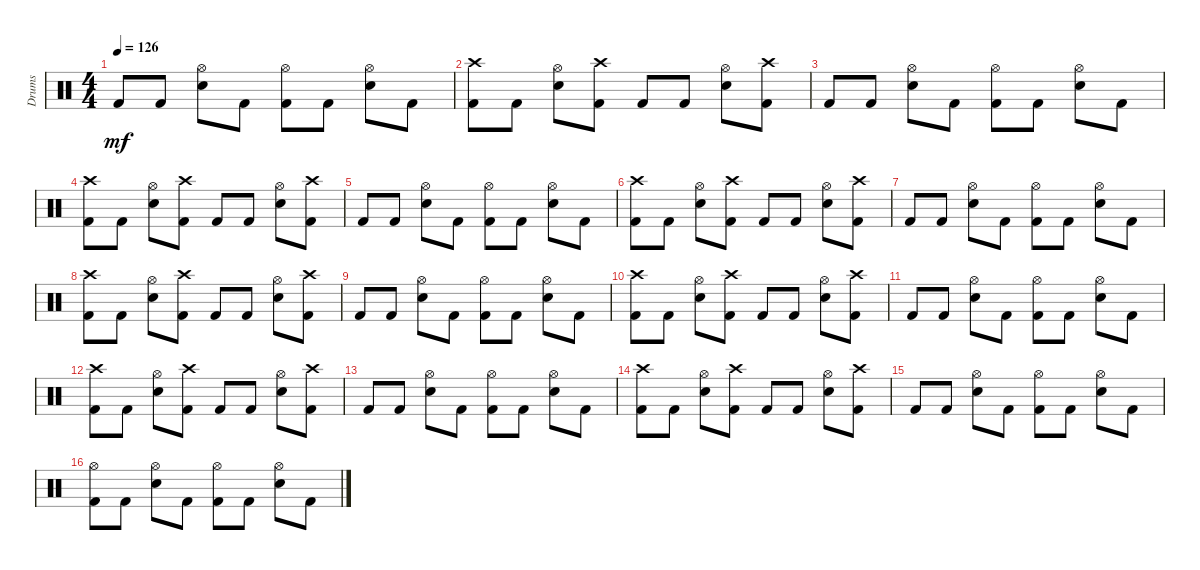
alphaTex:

\track ("Drums" "Drums") {instrument percussion}
\staff {score}
\articulation defaults
\ts (4 4)
\tempo 126
\clef neutral
\ks c "Kick (hit) 2".8{dy mf} "Kick (hit) 2".8
("Hi-Hat (open)" "Electric Snare (hit)").8 "Kick (hit) 2".8 ("Hi-Hat (open)" "Kick (hit) 2").8 "Kick (hit) 2".8 ("Hi-Hat (open)" "Electric Snare (hit)").8 "Kick (hit) 2".8 |
("Crash high (hit)" "Kick (hit) 2").8 "Kick (hit) 2".8 ("Hi-Hat (open)" "Electric Snare (hit)").8 ("Crash high (hit)" "Kick (hit) 2").8 "Kick (hit) 2".8 "Kick (hit) 2".8 ("Hi-Hat (open)" "Electric Snare (hit)").8 ("Crash high (hit)" "Kick (hit) 2").8 |
"Kick (hit) 2".8 "Kick (hit) 2".8 ("Hi-Hat (open)" "Electric Snare (hit)").8 "Kick (hit) 2".8 ("Hi-Hat (open)" "Kick (hit) 2").8 "Kick (hit) 2".8 ("Hi-Hat (open)" "Electric Snare (hit)").8 "Kick (hit) 2".8 |
("Crash high (hit)" "Kick (hit) 2").8 "Kick (hit) 2".8 ("Hi-Hat (open)" "Electric Snare (hit)").8 ("Crash high (hit)" "Kick (hit) 2").8 "Kick (hit) 2".8 "Kick (hit) 2".8 ("Hi-Hat (open)" "Electric Snare (hit)").8 ("Crash high (hit)" "Kick (hit) 2").8 |
"Kick (hit) 2".8 "Kick (hit) 2".8 ("Hi-Hat (open)" "Electric Snare (hit)").8 "Kick (hit) 2".8 ("Hi-Hat (open)" "Kick (hit) 2").8 "Kick (hit) 2".8 ("Hi-Hat (open)" "Electric Snare (hit)").8 "Kick (hit) 2".8 |
("Crash high (hit)" "Kick (hit) 2").8 "Kick (hit) 2".8 ("Hi-Hat (open)" "Electric Snare (hit)").8 ("Crash high (hit)" "Kick (hit) 2").8 "Kick (hit) 2".8 "Kick (hit) 2".8 ("Hi-Hat (open)" "Electric Snare (hit)").8 ("Crash high (hit)" "Kick (hit) 2").8 |
"Kick (hit) 2".8 "Kick (hit) 2".8 ("Hi-Hat (open)" "Electric Snare (hit)").8 "Kick (hit) 2".8 ("Hi-Hat (open)" "Kick (hit) 2").8 "Kick (hit) 2".8 ("Hi-Hat (open)" "Electric Snare (hit)").8 "Kick (hit) 2".8 |
("Crash high (hit)" "Kick (hit) 2").8 "Kick (hit) 2".8 ("Hi-Hat (open)" "Electric Snare (hit)").8 ("Crash high (hit)" "Kick (hit) 2").8 "Kick (hit) 2".8 "Kick (hit) 2".8 ("Hi-Hat (open)" "Electric Snare (hit)").8 ("Crash high (hit)" "Kick (hit) 2").8 |
"Kick (hit) 2".8 "Kick (hit) 2".8 ("Hi-Hat (open)" "Electric Snare (hit)").8 "Kick (hit) 2".8 ("Hi-Hat (open)" "Kick (hit) 2").8 "Kick (hit) 2".8 ("Hi-Hat (open)" "Electric Snare (hit)").8 "Kick (hit) 2".8 |
("Crash high (hit)" "Kick (hit) 2").8 "Kick (hit) 2".8 ("Hi-Hat (open)" "Electric Snare (hit)").8 ("Crash high (hit)" "Kick (hit) 2").8 "Kick (hit) 2".8 "Kick (hit) 2".8 ("Hi-Hat (open)" "Electric Snare (hit)").8 ("Crash high (hit)" "Kick (hit) 2").8 |
"Kick (hit) 2".8 "Kick (hit) 2".8 ("Hi-Hat (open)" "Electric Snare (hit)").8 "Kick (hit) 2".8 ("Hi-Hat (open)" "Kick (hit) 2").8 "Kick (hit) 2".8 ("Hi-Hat (open)" "Electric Snare (hit)").8 "Kick (hit) 2".8 |
("Crash high (hit)" "Kick (hit) 2").8 "Kick (hit) 2".8 ("Hi-Hat (open)" "Electric Snare (hit)").8 ("Crash high (hit)" "Kick (hit) 2").8 "Kick (hit) 2".8 "Kick (hit) 2".8 ("Hi-Hat (open)" "Electric Snare (hit)").8 ("Crash high (hit)" "Kick (hit) 2").8 |
"Kick (hit) 2".8 "Kick (hit) 2".8 ("Hi-Hat (open)" "Electric Snare (hit)").8 "Kick (hit) 2".8 ("Hi-Hat (open)" "Kick (hit) 2").8 "Kick (hit) 2".8 ("Hi-Hat (open)" "Electric Snare (hit)").8 "Kick (hit) 2".8 |
("Crash high (hit)" "Kick (hit) 2").8 "Kick (hit) 2".8 ("Hi-Hat (open)" "Electric Snare (hit)").8 ("Crash high (hit)" "Kick (hit) 2").8 "Kick (hit) 2".8 "Kick (hit) 2".8 ("Hi-Hat (open)" "Electric Snare (hit)").8 ("Crash high (hit)" "Kick (hit) 2").8 |
"Kick (hit) 2".8 "Kick (hit) 2".8 ("Hi-Hat (open)" "Electric Snare (hit)").8 "Kick (hit) 2".8 ("Hi-Hat (open)" "Kick (hit) 2").8 "Kick (hit) 2".8 ("Hi-Hat (open)" "Electric Snare (hit)").8 "Kick (hit) 2".8 |
("Hi-Hat (open)" "Kick (hit) 2").8 "Kick (hit) 2".8 ("Hi-Hat (open)" "Electric Snare (hit)").8 "Kick (hit) 2".8 ("Hi-Hat (open)" "Kick (hit) 2").8 "Kick (hit) 2".8 ("Hi-Hat (open)" "Electric Snare (hit)").8 "Kick (hit) 2".8
